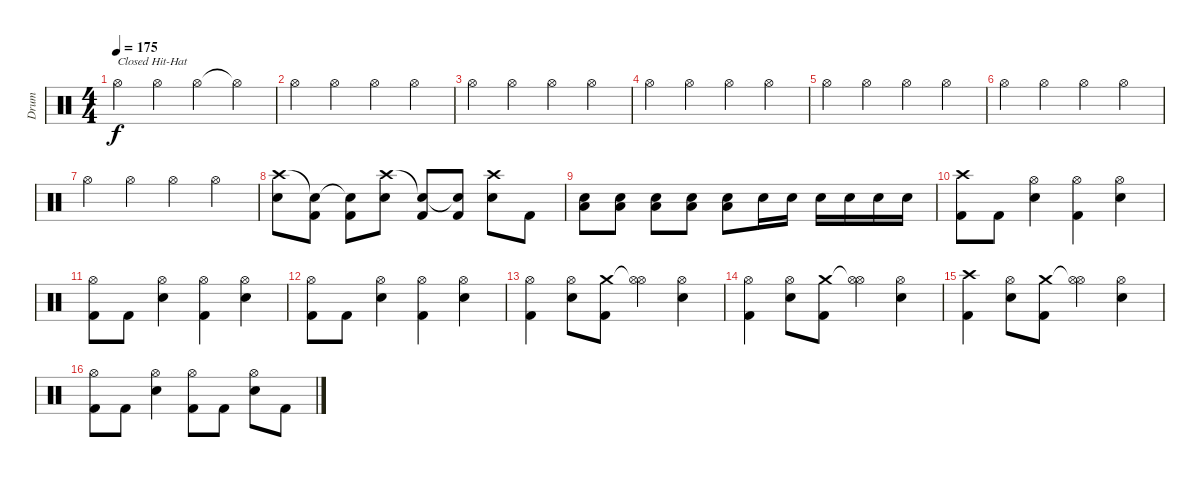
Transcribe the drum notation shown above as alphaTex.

\track ("Drum" "Drum") {instrument percussion}
\staff {score}
\articulation defaults
\ts (4 4)
\tempo 175
\clef neutral
\ks c "Hi-Hat (open)".4{txt "Closed Hit-Hat" dy f} "Hi-Hat (open)".4 "Hi-Hat (open)".4 "Hi-Hat (open)"{t}.4
|
"Hi-Hat (open)".4 "Hi-Hat (open)".4 "Hi-Hat (open)".4 "Hi-Hat (open)".4 |
"Hi-Hat (open)".4 "Hi-Hat (open)".4 "Hi-Hat (open)".4 "Hi-Hat (open)".4 |
"Hi-Hat (open)".4 "Hi-Hat (open)".4 "Hi-Hat (open)".4 "Hi-Hat (open)".4 |
"Hi-Hat (open)".4 "Hi-Hat (open)".4 "Hi-Hat (open)".4 "Hi-Hat (open)".4 |
"Hi-Hat (open)".4 "Hi-Hat (open)".4 "Hi-Hat (open)".4 "Hi-Hat (open)".4 |
"Hi-Hat (open)".4 "Hi-Hat (open)".4 "Hi-Hat (open)".4 "Hi-Hat (open)".4 |
("Crash high (hit)" "Electric Snare (hit)").8 ("Snare (hit)"{t} "Kick (hit) 2").8 ("Snare (hit)"{t} "Kick (hit) 2").8 ("Crash high (hit)" "Electric Snare (hit)").8 ("Snare (hit)"{t} "Kick (hit) 2").8 ("Snare (hit)"{t} "Kick (hit) 2").8 ("Crash high (hit)" "Electric Snare (hit)").8 "Kick (hit) 2".8 |
("Electric Snare (hit)" "Low Floor Tom (hit)").8 ("Electric Snare (hit)" "Low Floor Tom (hit)").8 ("Electric Snare (hit)" "Low Floor Tom (hit)").8 ("Electric Snare (hit)" "Low Floor Tom (hit)").8 ("Electric Snare (hit)" "Low Floor Tom (hit)").8 "Electric Snare (hit)".16 "Electric Snare (hit)".16 "Electric Snare (hit)".16 "Electric Snare (hit)".16 "Electric Snare (hit)".16 "Electric Snare (hit)".16 |
("Crash high (hit)" "Kick (hit) 2").8 "Kick (hit) 2".8 ("Hi-Hat (open)" "Electric Snare (hit)").4 ("Hi-Hat (open)" "Kick (hit) 2").4 ("Hi-Hat (open)" "Electric Snare (hit)").4 |
("Hi-Hat (open)" "Kick (hit) 2").8 "Kick (hit) 2".8 ("Hi-Hat (open)" "Electric Snare (hit)").4 ("Hi-Hat (open)" "Kick (hit) 2").4 ("Hi-Hat (open)" "Electric Snare (hit)").4 |
("Hi-Hat (open)" "Kick (hit) 2").8 "Kick (hit) 2".8 ("Hi-Hat (open)" "Electric Snare (hit)").4 ("Hi-Hat (open)" "Kick (hit) 2").4 ("Hi-Hat (open)" "Electric Snare (hit)").4 |
("Hi-Hat (open)" "Kick (hit) 2").4 ("Hi-Hat (open)" "Electric Snare (hit)").8 ("Crash medium (hit)" "Kick (hit) 2").8 ("Hi-Hat (open)"{t} "Hi-Hat (open)").4 ("Hi-Hat (open)" "Electric Snare (hit)").4 |
("Hi-Hat (open)" "Kick (hit) 2").4 ("Hi-Hat (open)" "Electric Snare (hit)").8 ("Crash medium (hit)" "Kick (hit) 2").8 ("Hi-Hat (open)"{t} "Hi-Hat (open)").4 ("Hi-Hat (open)" "Electric Snare (hit)").4 |
("Crash high (hit)" "Kick (hit) 2").4 ("Hi-Hat (open)" "Electric Snare (hit)").8 ("Crash medium (hit)" "Kick (hit) 2").8 ("Hi-Hat (open)"{t} "Hi-Hat (open)").4 ("Hi-Hat (open)" "Electric Snare (hit)").4 |
("Hi-Hat (open)" "Kick (hit) 2").8 "Kick (hit) 2".8 ("Hi-Hat (open)" "Electric Snare (hit)").4 ("Hi-Hat (open)" "Kick (hit) 2").8 "Kick (hit) 2".8 ("Hi-Hat (open)" "Electric Snare (hit)").8 "Kick (hit) 2".8
